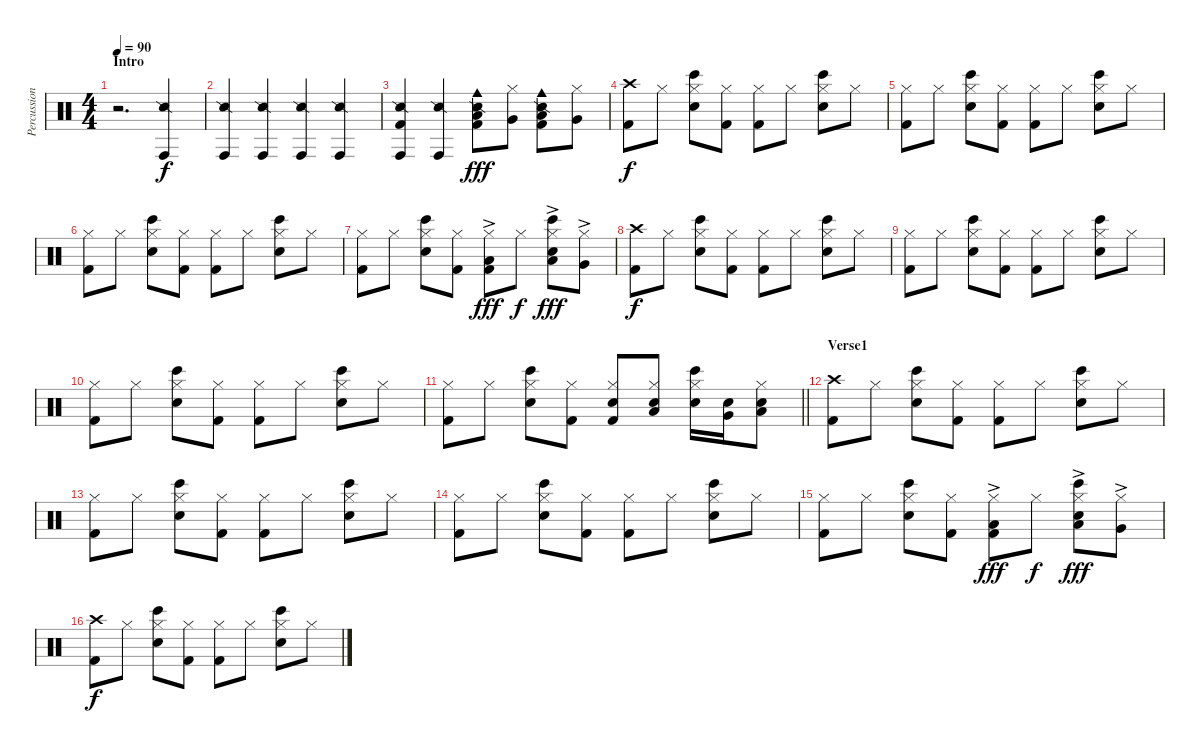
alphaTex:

\track ("Percussion" "Percussion") {instrument percussion}
\staff {score}
\articulation defaults
\ts (4 4)
\section ("" "Intro")
\tempo 90
\clef neutral
\ks c
r.2{d dy f} ("Snare (side stick) 2" "Conga high (hit)").4 |
("Snare (side stick) 2" "Conga high (hit)").4 ("Snare (side stick) 2" "Conga high (hit)").4 ("Snare (side stick) 2" "Conga high (hit)").4 ("Snare (side stick) 2" "Conga high (hit)").4 |
("Snare (side stick) 2" "Conga high (hit)" "Kick (hit) 2").4 ("Snare (side stick) 2" "Conga high (hit)").4 ("Snare (side stick) 2" "Cowbell medium (hit)" "Low Tom (hit)" "Kick (hit) 2").8{dy fff} ("Hi-Hat (closed)" "Very Low Tom (hit)").8 ("Snare (side stick) 2" "Cowbell medium (hit)" "Low Tom (hit)" "Kick (hit) 2").8 ("Hi-Hat (closed)" "Very Low Tom (hit)").8 |
("Crash high (hit)" "Kick (hit) 2").8{dy f} "Hi-Hat (closed)".8 ("Hi-Hat (closed)" "Bongo High (hit)" "Snare (hit) 2").8 ("Hi-Hat (closed)" "Kick (hit) 2").8 ("Hi-Hat (closed)" "Kick (hit) 2").8 "Hi-Hat (closed)".8 ("Hi-Hat (closed)" "Bongo High (hit)" "Snare (hit) 2").8 "Hi-Hat (closed)".8 |
("Hi-Hat (closed)" "Kick (hit) 2").8 "Hi-Hat (closed)".8 ("Hi-Hat (closed)" "Bongo High (hit)" "Snare (hit) 2").8 ("Hi-Hat (closed)" "Kick (hit) 2").8 ("Hi-Hat (closed)" "Kick (hit) 2").8 "Hi-Hat (closed)".8 ("Hi-Hat (closed)" "Bongo High (hit)" "Snare (hit) 2").8 "Hi-Hat (closed)".8 |
("Hi-Hat (closed)" "Kick (hit) 2").8 "Hi-Hat (closed)".8 ("Hi-Hat (closed)" "Bongo High (hit)" "Snare (hit) 2").8 ("Hi-Hat (closed)" "Kick (hit) 2").8 ("Hi-Hat (closed)" "Kick (hit) 2").8 "Hi-Hat (closed)".8 ("Hi-Hat (closed)" "Bongo High (hit)" "Snare (hit) 2").8 "Hi-Hat (closed)".8 |
("Hi-Hat (closed)" "Kick (hit) 2").8 "Hi-Hat (closed)".8 ("Hi-Hat (closed)" "Bongo High (hit)" "Snare (hit) 2").8 ("Hi-Hat (closed)" "Kick (hit) 2").8 ("Hi-Hat (closed)" "Low Tom (hit)"{ac} "Kick (hit) 2").8{dy fff} "Hi-Hat (closed)".8{dy f} ("Hi-Hat (closed)" "Bongo High (hit)" "Low Tom (hit)"{ac} "Snare (hit) 2").8{dy fff} ("Hi-Hat (closed)" "Very Low Tom (hit)"{ac}).8 |
("Crash high (hit)" "Kick (hit) 2").8{dy f} "Hi-Hat (closed)".8 ("Hi-Hat (closed)" "Bongo High (hit)" "Snare (hit) 2").8 ("Hi-Hat (closed)" "Kick (hit) 2").8 ("Hi-Hat (closed)" "Kick (hit) 2").8 "Hi-Hat (closed)".8 ("Hi-Hat (closed)" "Bongo High (hit)" "Snare (hit) 2").8 "Hi-Hat (closed)".8 |
("Hi-Hat (closed)" "Kick (hit) 2").8 "Hi-Hat (closed)".8 ("Hi-Hat (closed)" "Bongo High (hit)" "Snare (hit) 2").8 ("Hi-Hat (closed)" "Kick (hit) 2").8 ("Hi-Hat (closed)" "Kick (hit) 2").8 "Hi-Hat (closed)".8 ("Hi-Hat (closed)" "Bongo High (hit)" "Snare (hit) 2").8 "Hi-Hat (closed)".8 |
("Hi-Hat (closed)" "Kick (hit) 2").8 "Hi-Hat (closed)".8 ("Hi-Hat (closed)" "Bongo High (hit)" "Snare (hit) 2").8 ("Hi-Hat (closed)" "Kick (hit) 2").8 ("Hi-Hat (closed)" "Kick (hit) 2").8 "Hi-Hat (closed)".8 ("Hi-Hat (closed)" "Bongo High (hit)" "Snare (hit) 2").8 "Hi-Hat (closed)".8 |
\barLineRight lightlight
("Hi-Hat (closed)" "Kick (hit) 2").8 "Hi-Hat (closed)".8 ("Hi-Hat (closed)" "Bongo High (hit)" "Snare (hit) 2").8 ("Hi-Hat (closed)" "Kick (hit) 2").8 ("Hi-Hat (closed)" "Electric Snare (hit)" "Kick (hit) 2").8 ("Hi-Hat (closed)" "Low Tom (hit)" "Electric Snare (hit)").8 ("Hi-Hat (closed)" "Bongo High (hit)" "Snare (hit) 2").16 ("Very Low Tom (hit)" "Electric Snare (hit)").16 ("Hi-Hat (closed)" "Low Tom (hit)" "Snare (hit) 2").8 |
\section ("" "Verse1")
("Crash high (hit)" "Kick (hit) 2").8 "Hi-Hat (closed)".8 ("Hi-Hat (closed)" "Bongo High (hit)" "Snare (hit) 2").8 ("Hi-Hat (closed)" "Kick (hit) 2").8 ("Hi-Hat (closed)" "Kick (hit) 2").8 "Hi-Hat (closed)".8 ("Hi-Hat (closed)" "Bongo High (hit)" "Snare (hit) 2").8 "Hi-Hat (closed)".8 |
("Hi-Hat (closed)" "Kick (hit) 2").8 "Hi-Hat (closed)".8 ("Hi-Hat (closed)" "Bongo High (hit)" "Snare (hit) 2").8 ("Hi-Hat (closed)" "Kick (hit) 2").8 ("Hi-Hat (closed)" "Kick (hit) 2").8 "Hi-Hat (closed)".8 ("Hi-Hat (closed)" "Bongo High (hit)" "Snare (hit) 2").8 "Hi-Hat (closed)".8 |
("Hi-Hat (closed)" "Kick (hit) 2").8 "Hi-Hat (closed)".8 ("Hi-Hat (closed)" "Bongo High (hit)" "Snare (hit) 2").8 ("Hi-Hat (closed)" "Kick (hit) 2").8 ("Hi-Hat (closed)" "Kick (hit) 2").8 "Hi-Hat (closed)".8 ("Hi-Hat (closed)" "Bongo High (hit)" "Snare (hit) 2").8 "Hi-Hat (closed)".8 |
("Hi-Hat (closed)" "Kick (hit) 2").8 "Hi-Hat (closed)".8 ("Hi-Hat (closed)" "Bongo High (hit)" "Snare (hit) 2").8 ("Hi-Hat (closed)" "Kick (hit) 2").8 ("Hi-Hat (closed)" "Low Tom (hit)"{ac} "Kick (hit) 2").8{dy fff} "Hi-Hat (closed)".8{dy f} ("Hi-Hat (closed)" "Bongo High (hit)" "Low Tom (hit)"{ac} "Snare (hit) 2").8{dy fff} ("Hi-Hat (closed)" "Very Low Tom (hit)"{ac}).8 |
("Crash high (hit)" "Kick (hit) 2").8{dy f} "Hi-Hat (closed)".8 ("Hi-Hat (closed)" "Bongo High (hit)" "Snare (hit) 2").8 ("Hi-Hat (closed)" "Kick (hit) 2").8 ("Hi-Hat (closed)" "Kick (hit) 2").8 "Hi-Hat (closed)".8 ("Hi-Hat (closed)" "Bongo High (hit)" "Snare (hit) 2").8 "Hi-Hat (closed)".8
